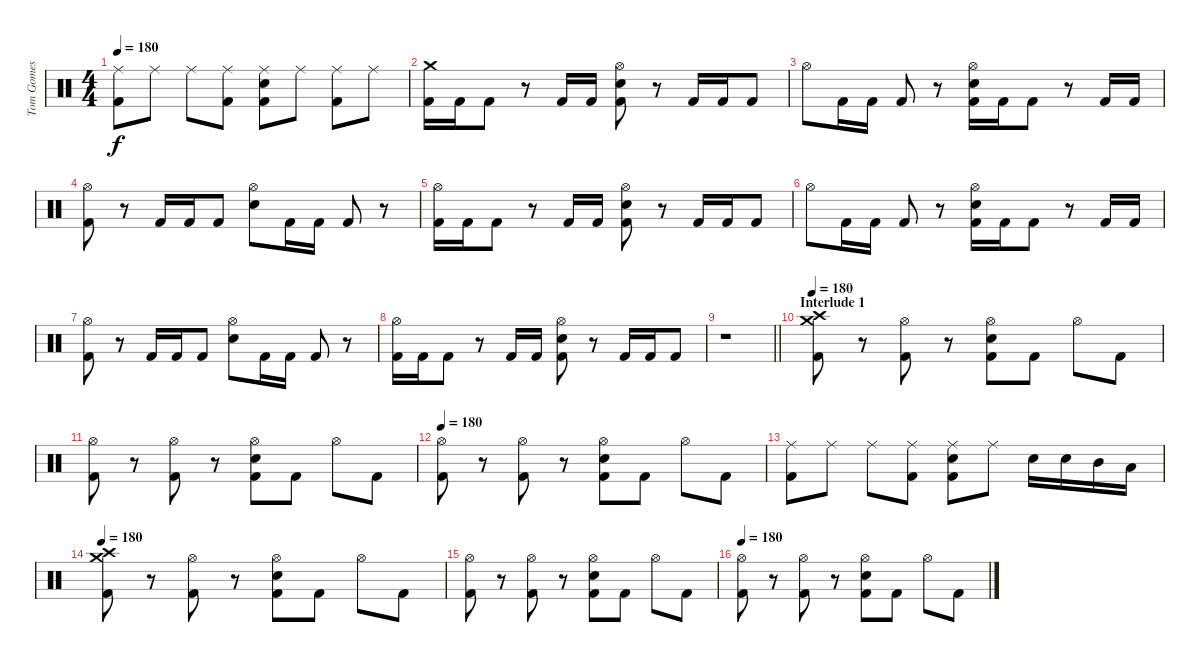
\track ("Tom Gomes" "Tom Gomes") {instrument percussion}
\staff {score}
\articulation defaults
\ts (4 4)
\tempo 180
\clef neutral
\ks c
("Ride (middle)" "Kick (hit) 2").8{dy f} "Ride (middle)".8 "Ride (middle)".8 ("Ride (middle)" "Kick (hit) 2").8 ("Ride (middle)" "Snare (hit) 2" "Kick (hit) 2").8 "Ride (middle)".8 ("Ride (middle)" "Kick (hit) 2").8 "Ride (middle)".8 |
("Crash medium (hit)" "Kick (hit) 2").16 "Kick (hit) 2".16 "Kick (hit) 2".8 r.8 "Kick (hit) 2".16 "Kick (hit) 2".16 ("Hi-Hat (open)" "Snare (hit) 2" "Kick (hit) 2").8 r.8 "Kick (hit) 2".16 "Kick (hit) 2".16 "Kick (hit) 2".8 |
"Hi-Hat (open)".8 "Kick (hit) 2".16 "Kick (hit) 2".16 "Kick (hit) 2".8 r.8 ("Hi-Hat (open)" "Snare (hit) 2" "Kick (hit) 2").16 "Kick (hit) 2".16 "Kick (hit) 2".8 r.8 "Kick (hit) 2".16 "Kick (hit) 2".16 |
("Hi-Hat (open)" "Kick (hit) 2").8 r.8 "Kick (hit) 2".16 "Kick (hit) 2".16 "Kick (hit) 2".8 ("Hi-Hat (open)" "Snare (hit) 2").8 "Kick (hit) 2".16 "Kick (hit) 2".16 "Kick (hit) 2".8 r.8 |
("Hi-Hat (open)" "Kick (hit) 2").16 "Kick (hit) 2".16 "Kick (hit) 2".8 r.8 "Kick (hit) 2".16 "Kick (hit) 2".16 ("Hi-Hat (open)" "Snare (hit) 2" "Kick (hit) 2").8 r.8 "Kick (hit) 2".16 "Kick (hit) 2".16 "Kick (hit) 2".8 |
"Hi-Hat (open)".8 "Kick (hit) 2".16 "Kick (hit) 2".16 "Kick (hit) 2".8 r.8 ("Hi-Hat (open)" "Snare (hit) 2" "Kick (hit) 2").16 "Kick (hit) 2".16 "Kick (hit) 2".8 r.8 "Kick (hit) 2".16 "Kick (hit) 2".16 |
("Hi-Hat (open)" "Kick (hit) 2").8 r.8 "Kick (hit) 2".16 "Kick (hit) 2".16 "Kick (hit) 2".8 ("Hi-Hat (open)" "Snare (hit) 2").8 "Kick (hit) 2".16 "Kick (hit) 2".16 "Kick (hit) 2".8 r.8 |
("Hi-Hat (open)" "Kick (hit) 2").16 "Kick (hit) 2".16 "Kick (hit) 2".8 r.8 "Kick (hit) 2".16 "Kick (hit) 2".16 ("Hi-Hat (open)" "Snare (hit) 2" "Kick (hit) 2").8 r.8 "Kick (hit) 2".16 "Kick (hit) 2".16 "Kick (hit) 2".8 |
\barLineRight lightlight
r.1 |
\section ("" "Interlude 1")
\tempo 180
("Crash high (hit)" "Crash medium (hit)" "Kick (hit) 2").8 r.8 ("Hi-Hat (open)" "Kick (hit) 2").8 r.8 ("Hi-Hat (open)" "Snare (hit) 2" "Kick (hit) 2").8 "Kick (hit) 2".8 "Hi-Hat (open)".8 "Kick (hit) 2".8 |
("Hi-Hat (open)" "Kick (hit) 2").8 r.8 ("Hi-Hat (open)" "Kick (hit) 2").8 r.8 ("Hi-Hat (open)" "Snare (hit) 2" "Kick (hit) 2").8 "Kick (hit) 2".8 "Hi-Hat (open)".8 "Kick (hit) 2".8 |
\tempo 180
("Hi-Hat (open)" "Kick (hit) 2").8 r.8 ("Hi-Hat (open)" "Kick (hit) 2").8 r.8 ("Hi-Hat (open)" "Snare (hit) 2" "Kick (hit) 2").8 "Kick (hit) 2".8 "Hi-Hat (open)".8 "Kick (hit) 2".8 |
("Ride (middle)" "Kick (hit) 2").8 "Ride (middle)".8 "Ride (middle)".8 ("Ride (middle)" "Kick (hit) 2").8 ("Ride (middle)" "Snare (hit) 2" "Kick (hit) 2").8 "Ride (middle)".8 "Snare (hit) 2".16 "Snare (hit) 2".16 "Mid Tom (hit)".16 "Low Tom (hit)".16 |
\tempo 180
("Crash high (hit)" "Crash medium (hit)" "Kick (hit) 2").8 r.8 ("Hi-Hat (open)" "Kick (hit) 2").8 r.8 ("Hi-Hat (open)" "Snare (hit) 2" "Kick (hit) 2").8 "Kick (hit) 2".8 "Hi-Hat (open)".8 "Kick (hit) 2".8 |
("Hi-Hat (open)" "Kick (hit) 2").8 r.8 ("Hi-Hat (open)" "Kick (hit) 2").8 r.8 ("Hi-Hat (open)" "Snare (hit) 2" "Kick (hit) 2").8 "Kick (hit) 2".8 "Hi-Hat (open)".8 "Kick (hit) 2".8 |
\tempo 180
("Hi-Hat (open)" "Kick (hit) 2").8 r.8 ("Hi-Hat (open)" "Kick (hit) 2").8 r.8 ("Hi-Hat (open)" "Snare (hit) 2" "Kick (hit) 2").8 "Kick (hit) 2".8 "Hi-Hat (open)".8 "Kick (hit) 2".8
